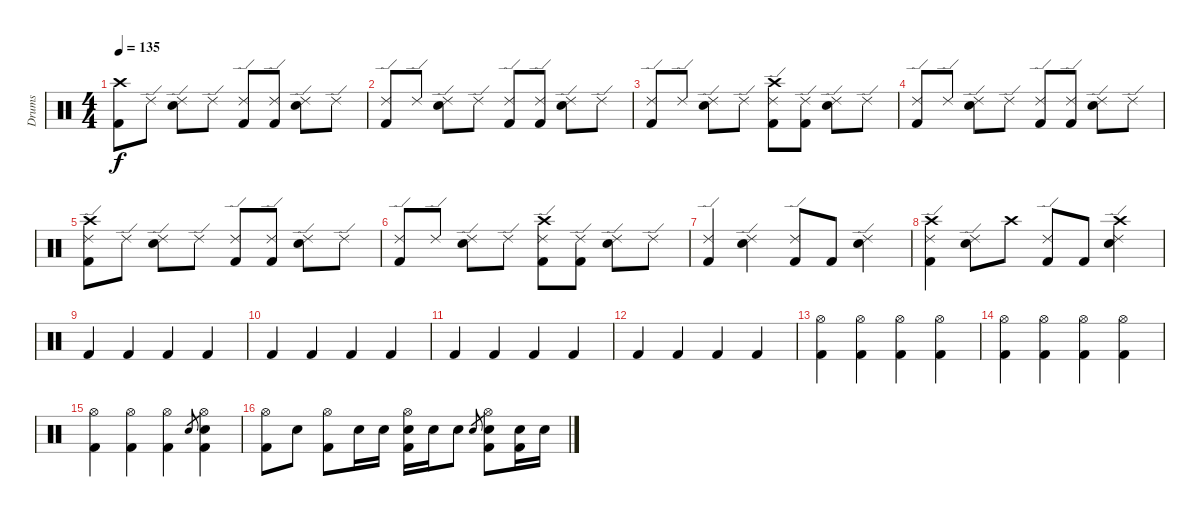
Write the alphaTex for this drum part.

\track ("Drums" "Drums") {instrument percussion}
\staff {score}
\articulation defaults
\ts (4 4)
\tempo 135
\clef neutral
\ks c
("Crash high (hit)" "Kick (hit) 2").8{dy f} "Ride (edge) 2".8 ("Snare (hit) 2" "Ride (edge) 2").8 "Ride (edge) 2".8 ("Ride (edge) 2" "Kick (hit) 2").8 ("Ride (edge) 2" "Kick (hit) 2").8 ("Snare (hit) 2" "Ride (edge) 2").8 "Ride (edge) 2".8 |
("Ride (edge) 2" "Kick (hit) 2").8 "Ride (edge) 2".8 ("Snare (hit) 2" "Ride (edge) 2").8 "Ride (edge) 2".8 ("Ride (edge) 2" "Kick (hit) 2").8 ("Ride (edge) 2" "Kick (hit) 2").8 ("Snare (hit) 2" "Ride (edge) 2").8 "Ride (edge) 2".8 |
("Ride (edge) 2" "Kick (hit) 2").8 "Ride (edge) 2".8 ("Snare (hit) 2" "Ride (edge) 2").8 "Ride (edge) 2".8 ("Crash high (hit)" "Ride (edge) 2" "Kick (hit) 2").8 ("Ride (edge) 2" "Kick (hit) 2").8 ("Snare (hit) 2" "Ride (edge) 2").8 "Ride (edge) 2".8 |
("Ride (edge) 2" "Kick (hit) 2").8 "Ride (edge) 2".8 ("Snare (hit) 2" "Ride (edge) 2").8 "Ride (edge) 2".8 ("Ride (edge) 2" "Kick (hit) 2").8 ("Ride (edge) 2" "Kick (hit) 2").8 ("Snare (hit) 2" "Ride (edge) 2").8 "Ride (edge) 2".8 |
("Crash high (hit)" "Ride (edge) 2" "Kick (hit) 2").8 "Ride (edge) 2".8 ("Snare (hit) 2" "Ride (edge) 2").8 "Ride (edge) 2".8 ("Ride (edge) 2" "Kick (hit) 2").8 ("Ride (edge) 2" "Kick (hit) 2").8 ("Snare (hit) 2" "Ride (edge) 2").8 "Ride (edge) 2".8 |
("Ride (edge) 2" "Kick (hit) 2").8 "Ride (edge) 2".8 ("Snare (hit) 2" "Ride (edge) 2").8 "Ride (edge) 2".8 ("Crash high (hit)" "Ride (edge) 2" "Kick (hit) 2").8 ("Ride (edge) 2" "Kick (hit) 2").8 ("Snare (hit) 2" "Ride (edge) 2").8 "Ride (edge) 2".8 |
("Ride (edge) 2" "Kick (hit) 2").4 ("Snare (hit) 2" "Ride (edge) 2").4 ("Ride (edge) 2" "Kick (hit) 2").8 "Kick (hit) 2".8 ("Snare (hit) 2" "Ride (edge) 2").4 |
("Crash high (hit)" "Ride (edge) 2" "Kick (hit) 2").4 ("Snare (hit) 2" "Ride (edge) 2").8 "Crash high (hit)".8 ("Ride (edge) 2" "Kick (hit) 2").8 "Kick (hit) 2".8 ("Crash high (hit)" "Snare (hit) 2" "Ride (edge) 2").4 |
"Kick (hit) 2".4 "Kick (hit) 2".4 "Kick (hit) 2".4 "Kick (hit) 2".4 |
"Kick (hit) 2".4 "Kick (hit) 2".4 "Kick (hit) 2".4 "Kick (hit) 2".4 |
"Kick (hit) 2".4 "Kick (hit) 2".4 "Kick (hit) 2".4 "Kick (hit) 2".4 |
"Kick (hit) 2".4 "Kick (hit) 2".4 "Kick (hit) 2".4 "Kick (hit) 2".4 |
("Hi-Hat (open)" "Kick (hit) 2").4 ("Hi-Hat (open)" "Kick (hit) 2").4 ("Hi-Hat (open)" "Kick (hit) 2").4 ("Hi-Hat (open)" "Kick (hit) 2").4 |
("Hi-Hat (open)" "Kick (hit) 2").4 ("Hi-Hat (open)" "Kick (hit) 2").4 ("Hi-Hat (open)" "Kick (hit) 2").4 ("Hi-Hat (open)" "Kick (hit) 2").4 |
("Hi-Hat (open)" "Kick (hit) 2").4 ("Hi-Hat (open)" "Kick (hit) 2").4 ("Hi-Hat (open)" "Kick (hit) 2").4 "Snare (hit) 2".8{gr} ("Snare (hit) 2" "Hi-Hat (open)" "Kick (hit) 2").4 |
("Hi-Hat (open)" "Kick (hit) 2").8 "Snare (hit) 2".8 ("Hi-Hat (open)" "Kick (hit) 2").8 "Snare (hit) 2".16 "Snare (hit) 2".16 ("Snare (hit) 2" "Hi-Hat (open)" "Kick (hit) 2").16 "Snare (hit) 2".16 "Snare (hit) 2".8 "Snare (hit) 2".8{gr} ("Snare (hit) 2" "Hi-Hat (open)" "Kick (hit) 2").8 ("Snare (hit) 2" "Kick (hit) 2").16 "Snare (hit) 2".16
